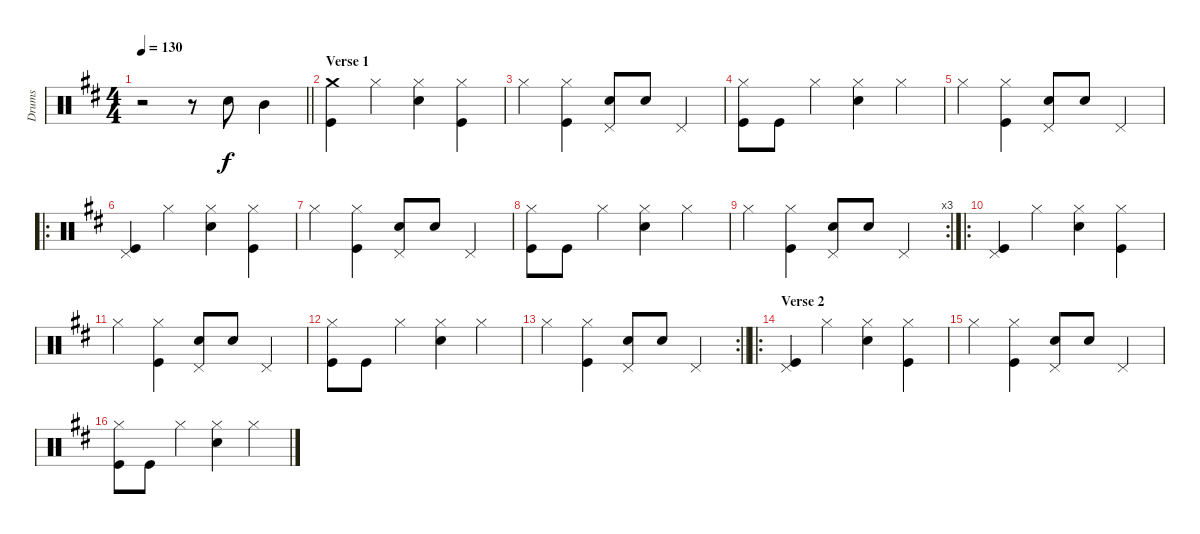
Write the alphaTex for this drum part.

\track ("Drums" "Drums") {instrument percussion}
\staff {score}
\articulation defaults
\ts (4 4)
\tempo 130
\clef neutral
\barLineRight lightlight
\ks d
r.2{dy f} r.8 "Snare (hit) 2".8 "Mid Tom (hit)".4 |
\section ("" "Verse 1")
("Crash medium (hit)" "Kick (hit)").4 "Hi-Hat (closed)".4 ("Hi-Hat (closed)" "Snare (hit) 2").4 ("Hi-Hat (closed)" "Kick (hit)").4 |
"Hi-Hat (closed)".4 ("Hi-Hat (closed)" "Kick (hit)").4 ("Pedal Hi-Hat (hit)" "Snare (hit) 2").8 "Snare (hit) 2".8 "Pedal Hi-Hat (hit)".4 |
("Hi-Hat (closed)" "Kick (hit)").8 "Kick (hit)".8 "Hi-Hat (closed)".4 ("Hi-Hat (closed)" "Snare (hit) 2").4 "Hi-Hat (closed)".4 |
"Hi-Hat (closed)".4 ("Hi-Hat (closed)" "Kick (hit)").4 ("Pedal Hi-Hat (hit)" "Snare (hit) 2").8 "Snare (hit) 2".8 "Pedal Hi-Hat (hit)".4 |
\ro
("Pedal Hi-Hat (hit)" "Kick (hit)").4 "Hi-Hat (closed)".4 ("Hi-Hat (closed)" "Snare (hit) 2").4 ("Hi-Hat (closed)" "Kick (hit)").4 |
"Hi-Hat (closed)".4 ("Hi-Hat (closed)" "Kick (hit)").4 ("Pedal Hi-Hat (hit)" "Snare (hit) 2").8 "Snare (hit) 2".8 "Pedal Hi-Hat (hit)".4 |
("Hi-Hat (closed)" "Kick (hit)").8 "Kick (hit)".8 "Hi-Hat (closed)".4 ("Hi-Hat (closed)" "Snare (hit) 2").4 "Hi-Hat (closed)".4 |
\rc 3 "Hi-Hat (closed)".4
("Hi-Hat (closed)" "Kick (hit)").4 ("Pedal Hi-Hat (hit)" "Snare (hit) 2").8 "Snare (hit) 2".8 "Pedal Hi-Hat (hit)".4 |
\ro
("Pedal Hi-Hat (hit)" "Kick (hit)").4 "Hi-Hat (closed)".4 ("Hi-Hat (closed)" "Snare (hit) 2").4 ("Hi-Hat (closed)" "Kick (hit)").4 |
"Hi-Hat (closed)".4 ("Hi-Hat (closed)" "Kick (hit)").4 ("Pedal Hi-Hat (hit)" "Snare (hit) 2").8 "Snare (hit) 2".8 "Pedal Hi-Hat (hit)".4 |
("Hi-Hat (closed)" "Kick (hit)").8 "Kick (hit)".8 "Hi-Hat (closed)".4 ("Hi-Hat (closed)" "Snare (hit) 2").4 "Hi-Hat (closed)".4 |
\rc 2
\barLineRight lightlight "Hi-Hat (closed)".4
("Hi-Hat (closed)" "Kick (hit)").4 ("Pedal Hi-Hat (hit)" "Snare (hit) 2").8 "Snare (hit) 2".8 "Pedal Hi-Hat (hit)".4 |
\ro
\section ("" "Verse 2")
("Pedal Hi-Hat (hit)" "Kick (hit)").4 "Hi-Hat (closed)".4 ("Hi-Hat (closed)" "Snare (hit) 2").4 ("Hi-Hat (closed)" "Kick (hit)").4 |
"Hi-Hat (closed)".4 ("Hi-Hat (closed)" "Kick (hit)").4 ("Pedal Hi-Hat (hit)" "Snare (hit) 2").8 "Snare (hit) 2".8 "Pedal Hi-Hat (hit)".4 |
("Hi-Hat (closed)" "Kick (hit)").8 "Kick (hit)".8 "Hi-Hat (closed)".4 ("Hi-Hat (closed)" "Snare (hit) 2").4 "Hi-Hat (closed)".4
